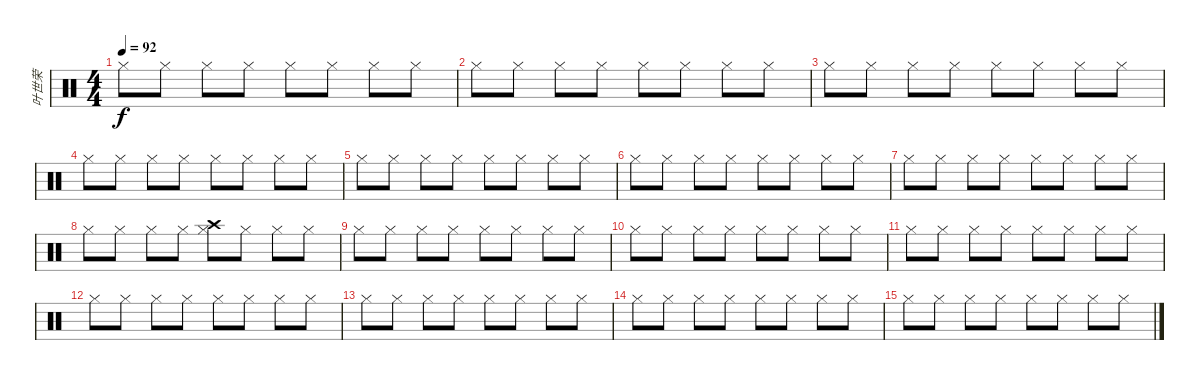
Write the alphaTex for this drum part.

\track ("叶世荣" "叶世荣") {instrument percussion}
\staff {score}
\articulation defaults
\ts (4 4)
\tempo 92
\clef neutral
\ks c "Hi-Hat (closed)".8{dy f} "Hi-Hat (closed)".8 "Hi-Hat (closed)".8 "Hi-Hat (closed)".8 "Hi-Hat (closed)".8 "Hi-Hat (closed)".8 "Hi-Hat (closed)".8 "Hi-Hat (closed)".8
|
"Hi-Hat (closed)".8 "Hi-Hat (closed)".8 "Hi-Hat (closed)".8 "Hi-Hat (closed)".8 "Hi-Hat (closed)".8 "Hi-Hat (closed)".8 "Hi-Hat (closed)".8 "Hi-Hat (closed)".8 |
"Hi-Hat (closed)".8 "Hi-Hat (closed)".8 "Hi-Hat (closed)".8 "Hi-Hat (closed)".8 "Hi-Hat (closed)".8 "Hi-Hat (closed)".8 "Hi-Hat (closed)".8 "Hi-Hat (closed)".8 |
"Hi-Hat (closed)".8 "Hi-Hat (closed)".8 "Hi-Hat (closed)".8 "Hi-Hat (closed)".8 "Hi-Hat (closed)".8 "Hi-Hat (closed)".8 "Hi-Hat (closed)".8 "Hi-Hat (closed)".8 |
"Hi-Hat (closed)".8 "Hi-Hat (closed)".8 "Hi-Hat (closed)".8 "Hi-Hat (closed)".8 "Hi-Hat (closed)".8 "Hi-Hat (closed)".8 "Hi-Hat (closed)".8 "Hi-Hat (closed)".8 |
"Hi-Hat (closed)".8 "Hi-Hat (closed)".8 "Hi-Hat (closed)".8 "Hi-Hat (closed)".8 "Hi-Hat (closed)".8 "Hi-Hat (closed)".8 "Hi-Hat (closed)".8 "Hi-Hat (closed)".8 |
"Hi-Hat (closed)".8 "Hi-Hat (closed)".8 "Hi-Hat (closed)".8 "Hi-Hat (closed)".8 "Hi-Hat (closed)".8 "Hi-Hat (closed)".8 "Hi-Hat (closed)".8 "Hi-Hat (closed)".8 |
"Hi-Hat (closed)".8 "Hi-Hat (closed)".8 "Hi-Hat (closed)".8 "Hi-Hat (closed)".8 ("Hi-Hat (closed)" "Crash high (hit)").8 "Hi-Hat (closed)".8 "Hi-Hat (closed)".8 "Hi-Hat (closed)".8 |
"Hi-Hat (closed)".8 "Hi-Hat (closed)".8 "Hi-Hat (closed)".8 "Hi-Hat (closed)".8 "Hi-Hat (closed)".8 "Hi-Hat (closed)".8 "Hi-Hat (closed)".8 "Hi-Hat (closed)".8 |
"Hi-Hat (closed)".8 "Hi-Hat (closed)".8 "Hi-Hat (closed)".8 "Hi-Hat (closed)".8 "Hi-Hat (closed)".8 "Hi-Hat (closed)".8 "Hi-Hat (closed)".8 "Hi-Hat (closed)".8 |
"Hi-Hat (closed)".8 "Hi-Hat (closed)".8 "Hi-Hat (closed)".8 "Hi-Hat (closed)".8 "Hi-Hat (closed)".8 "Hi-Hat (closed)".8 "Hi-Hat (closed)".8 "Hi-Hat (closed)".8 |
"Hi-Hat (closed)".8 "Hi-Hat (closed)".8 "Hi-Hat (closed)".8 "Hi-Hat (closed)".8 "Hi-Hat (closed)".8 "Hi-Hat (closed)".8 "Hi-Hat (closed)".8 "Hi-Hat (closed)".8 |
"Hi-Hat (closed)".8 "Hi-Hat (closed)".8 "Hi-Hat (closed)".8 "Hi-Hat (closed)".8 "Hi-Hat (closed)".8 "Hi-Hat (closed)".8 "Hi-Hat (closed)".8 "Hi-Hat (closed)".8 |
"Hi-Hat (closed)".8 "Hi-Hat (closed)".8 "Hi-Hat (closed)".8 "Hi-Hat (closed)".8 "Hi-Hat (closed)".8 "Hi-Hat (closed)".8 "Hi-Hat (closed)".8 "Hi-Hat (closed)".8 |
"Hi-Hat (closed)".8 "Hi-Hat (closed)".8 "Hi-Hat (closed)".8 "Hi-Hat (closed)".8 "Hi-Hat (closed)".8 "Hi-Hat (closed)".8 "Hi-Hat (closed)".8 "Hi-Hat (closed)".8
